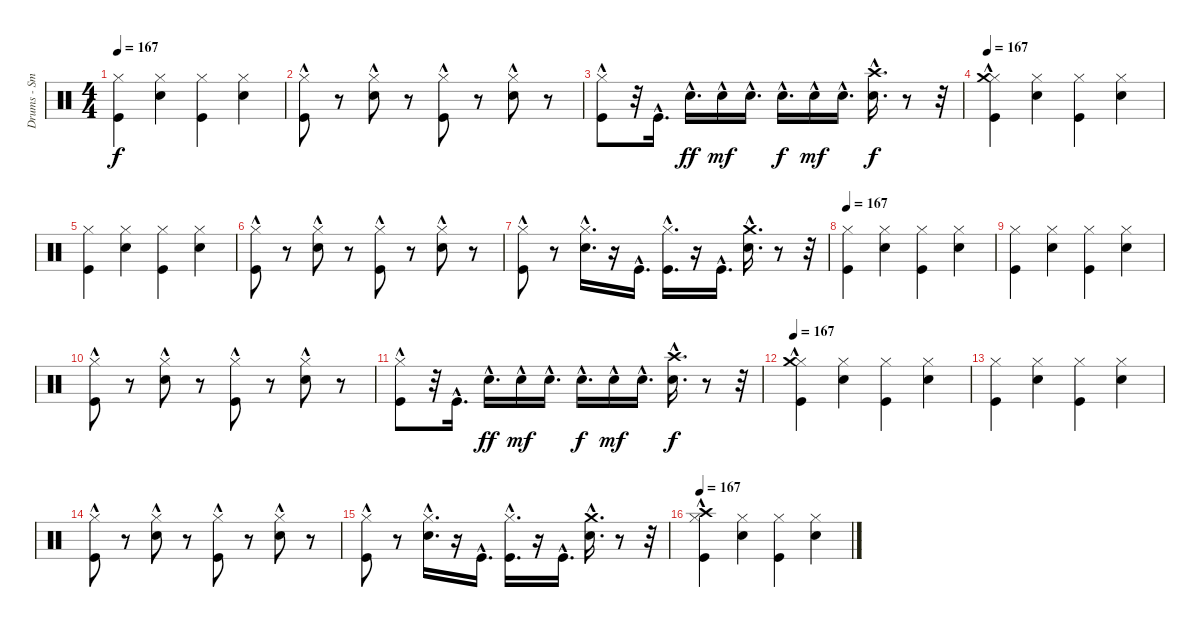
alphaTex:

\track ("Drums - Smelly" "Drums - Sm") {instrument percussion}
\staff {score}
\articulation defaults
\ts (4 4)
\tempo 167
\clef neutral
\ks c
("Kick (hit)" "Hi-Hat (closed)").4{dy f} ("Hi-Hat (closed)" "Electric Snare (hit)").4 ("Hi-Hat (closed)" "Kick (hit)").4 ("Hi-Hat (closed)" "Electric Snare (hit)").4 |
("Hi-Hat (closed)"{hac} "Kick (hit)").8 r.8 ("Electric Snare (hit)" "Hi-Hat (closed)"{hac}).8 r.8 ("Kick (hit)" "Hi-Hat (closed)"{hac}).8 r.8 ("Electric Snare (hit)" "Hi-Hat (closed)"{hac}).8 r.8 |
("Hi-Hat (closed)"{hac} "Kick (hit)").8 r.32 "Kick (hit)"{hac}.16{d} "Electric Snare (hit)"{hac}.16{d dy ff} "Electric Snare (hit)"{hac}.16{dy mf} "Electric Snare (hit)"{hac}.16{d} "Electric Snare (hit)"{hac}.16{d dy f} "Electric Snare (hit)"{hac}.16{dy mf} "Electric Snare (hit)"{hac}.16{d} ("Electric Snare (hit)"{hac} "Crash high (hit)"{hac}).16{d dy f} r.8 r.32 |
\tempo 167
("Kick (hit)" "Hi-Hat (closed)" "Crash medium (hit)"{hac}).4 ("Hi-Hat (closed)" "Electric Snare (hit)").4 ("Kick (hit)" "Hi-Hat (closed)").4 ("Hi-Hat (closed)" "Electric Snare (hit)").4 |
("Kick (hit)" "Hi-Hat (closed)").4 ("Electric Snare (hit)" "Hi-Hat (closed)").4 ("Kick (hit)" "Hi-Hat (closed)").4 ("Hi-Hat (closed)" "Electric Snare (hit)").4 |
("Kick (hit)" "Hi-Hat (closed)"{hac}).8 r.8 ("Electric Snare (hit)" "Hi-Hat (closed)"{hac}).8 r.8 ("Kick (hit)" "Hi-Hat (closed)"{hac}).8 r.8 ("Electric Snare (hit)" "Hi-Hat (closed)"{hac}).8 r.8 |
("Hi-Hat (closed)"{hac} "Kick (hit)").8 r.8 ("Hi-Hat (closed)"{hac} "Electric Snare (hit)"{hac}).16{d} r.16 "Kick (hit)"{hac}.16{d} ("Hi-Hat (closed)"{hac} "Kick (hit)"{hac}).16{d} r.16 "Kick (hit)"{hac}.16{d} ("Crash medium (hit)"{hac} "Electric Snare (hit)"{hac}).16{d} r.8 r.32 |
\tempo 167
("Kick (hit)" "Hi-Hat (closed)").4 ("Electric Snare (hit)" "Hi-Hat (closed)").4 ("Hi-Hat (closed)" "Kick (hit)").4 ("Electric Snare (hit)" "Hi-Hat (closed)").4 |
("Hi-Hat (closed)" "Kick (hit)").4 ("Electric Snare (hit)" "Hi-Hat (closed)").4 ("Kick (hit)" "Hi-Hat (closed)").4 ("Hi-Hat (closed)" "Electric Snare (hit)").4 |
("Kick (hit)" "Hi-Hat (closed)"{hac}).8 r.8 ("Hi-Hat (closed)"{hac} "Electric Snare (hit)").8 r.8 ("Kick (hit)" "Hi-Hat (closed)"{hac}).8 r.8 ("Hi-Hat (closed)"{hac} "Electric Snare (hit)").8 r.8 |
("Kick (hit)" "Hi-Hat (closed)"{hac}).8 r.32 "Kick (hit)"{hac}.16{d} "Electric Snare (hit)"{hac}.16{d dy ff} "Electric Snare (hit)"{hac}.16{dy mf} "Electric Snare (hit)"{hac}.16{d} "Electric Snare (hit)"{hac}.16{d dy f} "Electric Snare (hit)"{hac}.16{dy mf} "Electric Snare (hit)"{hac}.16{d} ("Crash high (hit)"{hac} "Electric Snare (hit)"{hac}).16{d dy f} r.8 r.32 |
\tempo 167
("Hi-Hat (closed)" "Kick (hit)" "Crash medium (hit)"{hac}).4 ("Electric Snare (hit)" "Hi-Hat (closed)").4 ("Hi-Hat (closed)" "Kick (hit)").4 ("Hi-Hat (closed)" "Electric Snare (hit)").4 |
("Hi-Hat (closed)" "Kick (hit)").4 ("Hi-Hat (closed)" "Electric Snare (hit)").4 ("Kick (hit)" "Hi-Hat (closed)").4 ("Electric Snare (hit)" "Hi-Hat (closed)").4 |
("Kick (hit)" "Hi-Hat (closed)"{hac}).8 r.8 ("Hi-Hat (closed)"{hac} "Electric Snare (hit)").8 r.8 ("Kick (hit)" "Hi-Hat (closed)"{hac}).8 r.8 ("Hi-Hat (closed)"{hac} "Electric Snare (hit)").8 r.8 |
("Kick (hit)" "Hi-Hat (closed)"{hac}).8 r.8 ("Electric Snare (hit)"{hac} "Hi-Hat (closed)"{hac}).16{d} r.16 "Kick (hit)"{hac}.16{d} ("Kick (hit)"{hac} "Hi-Hat (closed)"{hac}).16{d} r.16 "Kick (hit)"{hac}.16{d} ("Electric Snare (hit)"{hac} "Crash medium (hit)"{hac}).16{d} r.8 r.32 |
\tempo 167
("Kick (hit)" "Crash high (hit)"{hac} "Hi-Hat (closed)").4 ("Hi-Hat (closed)" "Electric Snare (hit)").4 ("Hi-Hat (closed)" "Kick (hit)").4 ("Electric Snare (hit)" "Hi-Hat (closed)").4
